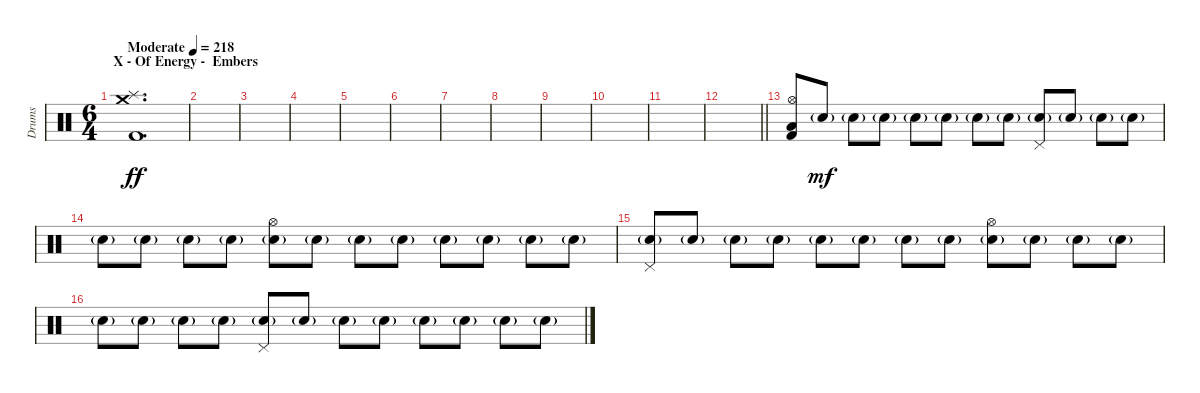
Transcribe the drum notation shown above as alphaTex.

\track ("Drums" "Drums") {instrument percussion}
\staff {score}
\articulation defaults
\ts (6 4)
\section ("" "X - Of Energy -  Embers")
\tempo (218 "Moderate")
\clef neutral
\ks c
("Crash medium (hit)" "Splash (hit)" "Kick (hit) 2").1{d dy ff} |
|
|
|
|
|
|
|
|
|
|
\barLineRight lightlight
|
\section ("" "")
("Hi-Hat (open)" "Low Floor Tom (hit)" "Kick (hit) 2").8 "Electric Snare (hit)"{g}.8{dy mf} "Electric Snare (hit)"{g}.8 "Electric Snare (hit)"{g}.8 "Electric Snare (hit)"{g}.8 "Electric Snare (hit)"{g}.8 "Electric Snare (hit)"{g}.8 "Electric Snare (hit)"{g}.8 ("Pedal Hi-Hat (hit)" "Electric Snare (hit)"{g}).8 "Electric Snare (hit)"{g}.8 "Electric Snare (hit)"{g}.8 "Electric Snare (hit)"{g}.8 |
"Electric Snare (hit)"{g}.8 "Electric Snare (hit)"{g}.8 "Electric Snare (hit)"{g}.8 "Electric Snare (hit)"{g}.8 ("Hi-Hat (open)" "Electric Snare (hit)"{g}).8 "Electric Snare (hit)"{g}.8 "Electric Snare (hit)"{g}.8 "Electric Snare (hit)"{g}.8 "Electric Snare (hit)"{g}.8 "Electric Snare (hit)"{g}.8 "Electric Snare (hit)"{g}.8 "Electric Snare (hit)"{g}.8 |
("Pedal Hi-Hat (hit)" "Electric Snare (hit)"{g}).8 "Electric Snare (hit)"{g}.8 "Electric Snare (hit)"{g}.8 "Electric Snare (hit)"{g}.8 "Electric Snare (hit)"{g}.8 "Electric Snare (hit)"{g}.8 "Electric Snare (hit)"{g}.8 "Electric Snare (hit)"{g}.8 ("Hi-Hat (open)" "Electric Snare (hit)"{g}).8 "Electric Snare (hit)"{g}.8 "Electric Snare (hit)"{g}.8 "Electric Snare (hit)"{g}.8 |
"Electric Snare (hit)"{g}.8 "Electric Snare (hit)"{g}.8 "Electric Snare (hit)"{g}.8 "Electric Snare (hit)"{g}.8 ("Pedal Hi-Hat (hit)" "Electric Snare (hit)"{g}).8 "Electric Snare (hit)"{g}.8 "Electric Snare (hit)"{g}.8 "Electric Snare (hit)"{g}.8 "Electric Snare (hit)"{g}.8 "Electric Snare (hit)"{g}.8 "Electric Snare (hit)"{g}.8 "Electric Snare (hit)"{g}.8
